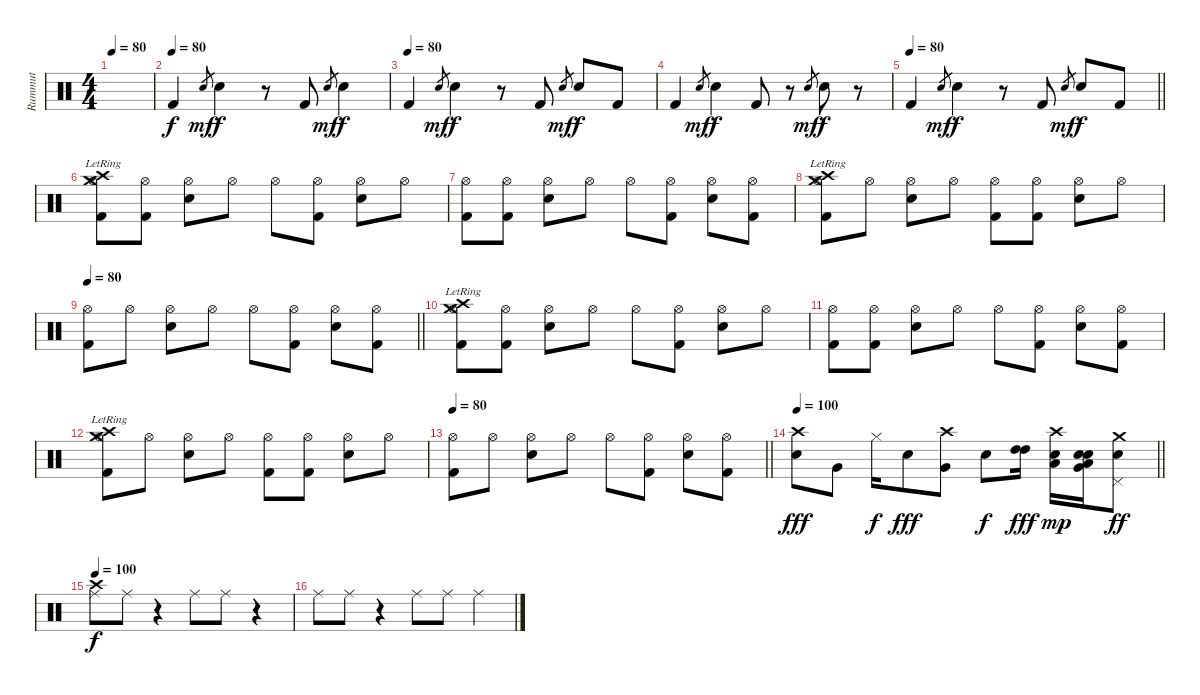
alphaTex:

\track ("Rummut" "Rummut") {instrument percussion}
\staff {score}
\articulation defaults
\ts (4 4)
\tempo 80
\clef neutral
\ks c
|
\tempo (80)
"Kick (hit) 2".4 "Snare (hit) 2".8{gr dy mf} "Snare (hit) 2".4{dy f} r.8 "Kick (hit) 2".8 "Snare (hit) 2".8{gr dy mf} "Snare (hit) 2".4{dy f} |
\tempo (80)
"Kick (hit) 2".4 "Snare (hit) 2".8{gr dy mf} "Snare (hit) 2".4{dy f} r.8 "Kick (hit) 2".8 "Snare (hit) 2".8{gr dy mf} "Snare (hit) 2".8{dy f} "Kick (hit) 2".8 |
"Kick (hit) 2".4 "Snare (hit) 2".8{gr dy mf} "Snare (hit) 2".4{dy f} "Kick (hit) 2".8 r.8 "Snare (hit) 2".8{gr dy mf} "Snare (hit) 2".8{dy f} r.8 |
\tempo 80
\barLineRight lightlight "Kick (hit) 2".4 "Snare (hit) 2".8{gr dy mf} "Snare (hit) 2".4{dy f}
r.8 "Kick (hit) 2".8 "Snare (hit) 2".8{gr dy mf} "Snare (hit) 2".8{dy f} "Kick (hit) 2".8 |
("Crash high (hit)"{lr} "Hi-Hat (open)" "Crash medium (hit)"{lr} "Kick (hit) 2").8 ("Hi-Hat (open)" "Kick (hit) 2").8 ("Hi-Hat (open)" "Snare (hit) 2").8 "Hi-Hat (open)".8 "Hi-Hat (open)".8 ("Hi-Hat (open)" "Kick (hit) 2").8 ("Hi-Hat (open)" "Snare (hit) 2").8 "Hi-Hat (open)".8 |
("Hi-Hat (open)" "Kick (hit) 2").8 ("Hi-Hat (open)" "Kick (hit) 2").8 ("Hi-Hat (open)" "Snare (hit) 2").8 "Hi-Hat (open)".8 "Hi-Hat (open)".8 ("Hi-Hat (open)" "Kick (hit) 2").8 ("Hi-Hat (open)" "Snare (hit) 2").8 ("Hi-Hat (open)" "Kick (hit) 2").8 |
("Crash high (hit)"{lr} "Hi-Hat (open)" "Crash medium (hit)"{lr} "Kick (hit) 2").8 "Hi-Hat (open)".8 ("Hi-Hat (open)" "Snare (hit) 2").8 "Hi-Hat (open)".8 ("Hi-Hat (open)" "Kick (hit) 2").8 ("Hi-Hat (open)" "Kick (hit) 2").8 ("Hi-Hat (open)" "Snare (hit) 2").8 "Hi-Hat (open)".8 |
\tempo 80
\barLineRight lightlight
("Hi-Hat (open)" "Kick (hit) 2").8 "Hi-Hat (open)".8 ("Hi-Hat (open)" "Snare (hit) 2").8 "Hi-Hat (open)".8 "Hi-Hat (open)".8 ("Hi-Hat (open)" "Kick (hit) 2").8 ("Hi-Hat (open)" "Snare (hit) 2").8 ("Hi-Hat (open)" "Kick (hit) 2").8 |
("Crash high (hit)"{lr} "Hi-Hat (open)" "Crash medium (hit)"{lr} "Kick (hit) 2").8 ("Hi-Hat (open)" "Kick (hit) 2").8 ("Hi-Hat (open)" "Snare (hit) 2").8 "Hi-Hat (open)".8 "Hi-Hat (open)".8 ("Hi-Hat (open)" "Kick (hit) 2").8 ("Hi-Hat (open)" "Snare (hit) 2").8 "Hi-Hat (open)".8 |
("Hi-Hat (open)" "Kick (hit) 2").8 ("Hi-Hat (open)" "Kick (hit) 2").8 ("Hi-Hat (open)" "Snare (hit) 2").8 "Hi-Hat (open)".8 "Hi-Hat (open)".8 ("Hi-Hat (open)" "Kick (hit) 2").8 ("Hi-Hat (open)" "Snare (hit) 2").8 ("Hi-Hat (open)" "Kick (hit) 2").8 |
("Crash high (hit)"{lr} "Hi-Hat (open)" "Crash medium (hit)"{lr} "Kick (hit) 2").8 "Hi-Hat (open)".8 ("Hi-Hat (open)" "Snare (hit) 2").8 "Hi-Hat (open)".8 ("Hi-Hat (open)" "Kick (hit) 2").8 ("Hi-Hat (open)" "Kick (hit) 2").8 ("Hi-Hat (open)" "Snare (hit) 2").8 "Hi-Hat (open)".8 |
\tempo 80
\barLineRight lightlight
("Hi-Hat (open)" "Kick (hit) 2").8 "Hi-Hat (open)".8 ("Hi-Hat (open)" "Snare (hit) 2").8 "Hi-Hat (open)".8 "Hi-Hat (open)".8 ("Hi-Hat (open)" "Kick (hit) 2").8 ("Hi-Hat (open)" "Snare (hit) 2").8 ("Hi-Hat (open)" "Kick (hit) 2").8 |
\tempo 100
\barLineRight lightlight
("Electric Snare (hit)" "Crash high (hit)").8{dy fff} "Very Low Tom (hit)".8 "Hi-Hat (closed)".16{dy f} "Electric Snare (hit)".8{dy fff} ("Very Low Tom (hit)" "Crash high (hit)").8 "Electric Snare (hit)".8{dy f} ("High Tom (hit)" "High Tom (hit)").16{dy fff} ("Low Tom (hit)" "Electric Snare (hit)" "Crash high (hit)").16{dy mp} ("Low Tom (hit)" "Electric Snare (hit)" "Very Low Tom (hit)" "Electric Snare (hit)").16 ("Crash medium (hit)" "Electric Snare (hit)" "Pedal Hi-Hat (hit)").8{dy ff} |
\tempo 100
("Crash high (hit)" "Ride (middle)").8{dy f} "Ride (middle)".8 r.4 "Ride (middle)".8 "Ride (middle)".8 r.4 |
"Ride (middle)".8 "Ride (middle)".8 r.4 "Ride (middle)".8 "Ride (middle)".8 "Ride (middle)".4
